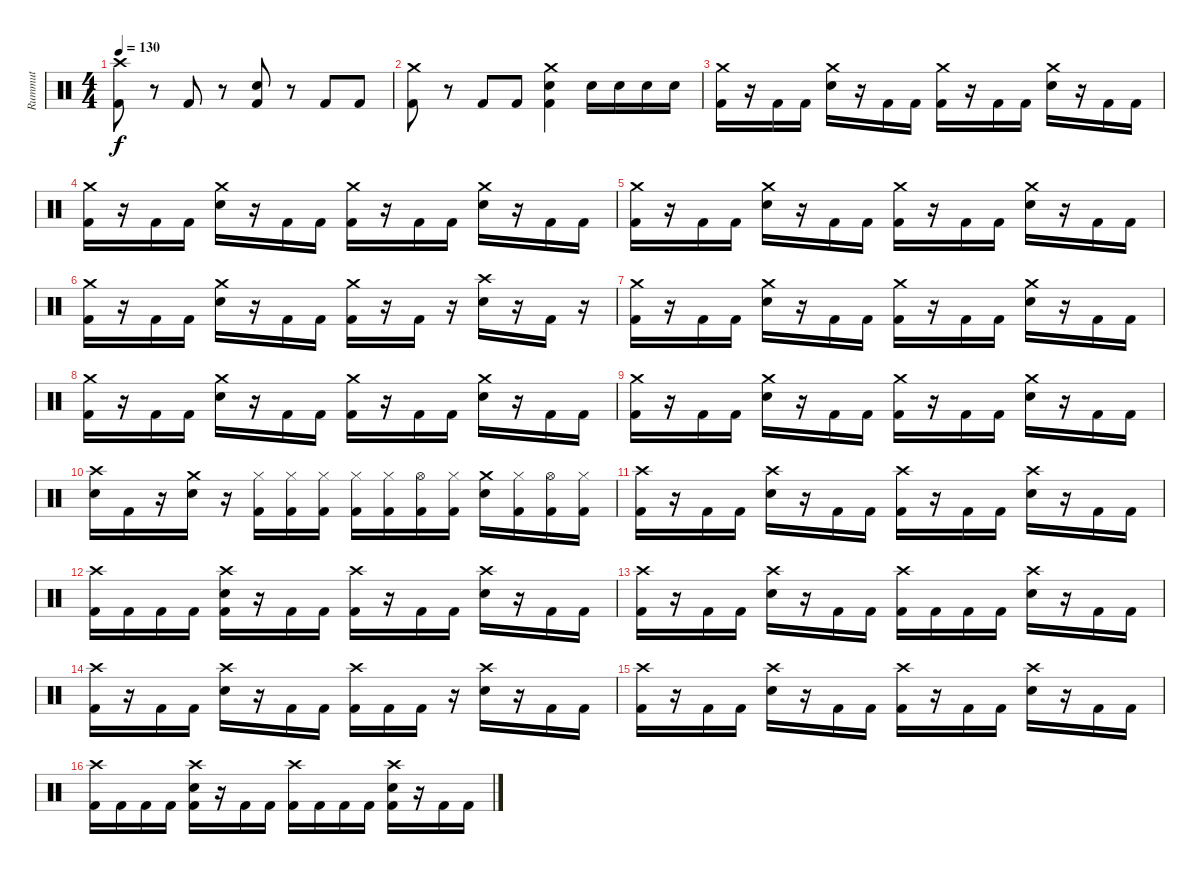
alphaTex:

\track ("Rummut" "Rummut") {instrument percussion}
\staff {score}
\articulation defaults
\ts (4 4)
\tempo 130
\clef neutral
\ks c
("Crash high (hit)" "Kick (hit) 2").8{dy f} r.8 "Kick (hit) 2".8 r.8 ("Snare (hit) 2" "Kick (hit) 2").8 r.8 "Kick (hit) 2".8 "Kick (hit) 2".8 |
("Crash medium (hit)" "Kick (hit) 2").8 r.8 "Kick (hit) 2".8 "Kick (hit) 2".8 ("Crash medium (hit)" "Snare (hit) 2" "Kick (hit) 2").4 "Snare (hit) 2".16 "Snare (hit) 2".16 "Snare (hit) 2".16 "Snare (hit) 2".16 |
("Crash medium (hit)" "Kick (hit) 2").16 r.16 "Kick (hit) 2".16 "Kick (hit) 2".16 ("Crash medium (hit)" "Snare (hit) 2").16 r.16 "Kick (hit) 2".16 "Kick (hit) 2".16 ("Crash medium (hit)" "Kick (hit) 2").16 r.16 "Kick (hit) 2".16 "Kick (hit) 2".16 ("Crash medium (hit)" "Snare (hit) 2").16 r.16 "Kick (hit) 2".16 "Kick (hit) 2".16 |
("Crash medium (hit)" "Kick (hit) 2").16 r.16 "Kick (hit) 2".16 "Kick (hit) 2".16 ("Crash medium (hit)" "Snare (hit) 2").16 r.16 "Kick (hit) 2".16 "Kick (hit) 2".16 ("Crash medium (hit)" "Kick (hit) 2").16 r.16 "Kick (hit) 2".16 "Kick (hit) 2".16 ("Crash medium (hit)" "Snare (hit) 2").16 r.16 "Kick (hit) 2".16 "Kick (hit) 2".16 |
("Crash medium (hit)" "Kick (hit) 2").16 r.16 "Kick (hit) 2".16 "Kick (hit) 2".16 ("Crash medium (hit)" "Snare (hit) 2").16 r.16 "Kick (hit) 2".16 "Kick (hit) 2".16 ("Crash medium (hit)" "Kick (hit) 2").16 r.16 "Kick (hit) 2".16 "Kick (hit) 2".16 ("Crash medium (hit)" "Snare (hit) 2").16 r.16 "Kick (hit) 2".16 "Kick (hit) 2".16 |
("Crash medium (hit)" "Kick (hit) 2").16 r.16 "Kick (hit) 2".16 "Kick (hit) 2".16 ("Crash medium (hit)" "Snare (hit) 2").16 r.16 "Kick (hit) 2".16 "Kick (hit) 2".16 ("Crash medium (hit)" "Kick (hit) 2").16 r.16 "Kick (hit) 2".16 r.16 ("Crash high (hit)" "Snare (hit) 2").16 r.16 "Kick (hit) 2".16 r.16 |
("Crash medium (hit)" "Kick (hit) 2").16 r.16 "Kick (hit) 2".16 "Kick (hit) 2".16 ("Crash medium (hit)" "Snare (hit) 2").16 r.16 "Kick (hit) 2".16 "Kick (hit) 2".16 ("Crash medium (hit)" "Kick (hit) 2").16 r.16 "Kick (hit) 2".16 "Kick (hit) 2".16 ("Crash medium (hit)" "Snare (hit) 2").16 r.16 "Kick (hit) 2".16 "Kick (hit) 2".16 |
("Crash medium (hit)" "Kick (hit) 2").16 r.16 "Kick (hit) 2".16 "Kick (hit) 2".16 ("Crash medium (hit)" "Snare (hit) 2").16 r.16 "Kick (hit) 2".16 "Kick (hit) 2".16 ("Crash medium (hit)" "Kick (hit) 2").16 r.16 "Kick (hit) 2".16 "Kick (hit) 2".16 ("Crash medium (hit)" "Snare (hit) 2").16 r.16 "Kick (hit) 2".16 "Kick (hit) 2".16 |
("Crash medium (hit)" "Kick (hit) 2").16 r.16 "Kick (hit) 2".16 "Kick (hit) 2".16 ("Crash medium (hit)" "Snare (hit) 2").16 r.16 "Kick (hit) 2".16 "Kick (hit) 2".16 ("Crash medium (hit)" "Kick (hit) 2").16 r.16 "Kick (hit) 2".16 "Kick (hit) 2".16 ("Crash medium (hit)" "Snare (hit) 2").16 r.16 "Kick (hit) 2".16 "Kick (hit) 2".16 |
("Crash high (hit)" "Snare (hit) 2").16 "Kick (hit) 2".16 r.16 ("Crash medium (hit)" "Snare (hit) 2").16 r.16 ("Hi-Hat (closed)" "Kick (hit) 2").16 ("Hi-Hat (closed)" "Kick (hit) 2").16 ("Hi-Hat (closed)" "Kick (hit) 2").16 ("Hi-Hat (closed)" "Kick (hit) 2").16 ("Hi-Hat (closed)" "Kick (hit) 2").16 ("Hi-Hat (open)" "Kick (hit) 2").16 ("Hi-Hat (closed)" "Kick (hit) 2").16 ("Crash medium (hit)" "Snare (hit) 2").16 ("Hi-Hat (closed)" "Kick (hit) 2").16 ("Hi-Hat (open)" "Kick (hit) 2").16 ("Hi-Hat (closed)" "Kick (hit) 2").16 |
("Crash high (hit)" "Kick (hit) 2").16 r.16 "Kick (hit) 2".16 "Kick (hit) 2".16 ("Crash high (hit)" "Snare (hit) 2").16 r.16 "Kick (hit) 2".16 "Kick (hit) 2".16 ("Crash high (hit)" "Kick (hit) 2").16 r.16 "Kick (hit) 2".16 "Kick (hit) 2".16 ("Crash high (hit)" "Snare (hit) 2").16 r.16 "Kick (hit) 2".16 "Kick (hit) 2".16 |
("Crash high (hit)" "Kick (hit) 2").16 "Kick (hit) 2".16 "Kick (hit) 2".16 "Kick (hit) 2".16 ("Crash high (hit)" "Snare (hit) 2" "Kick (hit) 2").16 r.16 "Kick (hit) 2".16 "Kick (hit) 2".16 ("Crash high (hit)" "Kick (hit) 2").16 r.16 "Kick (hit) 2".16 "Kick (hit) 2".16 ("Crash high (hit)" "Snare (hit) 2").16 r.16 "Kick (hit) 2".16 "Kick (hit) 2".16 |
("Crash high (hit)" "Kick (hit) 2").16 r.16 "Kick (hit) 2".16 "Kick (hit) 2".16 ("Crash high (hit)" "Snare (hit) 2").16 r.16 "Kick (hit) 2".16 "Kick (hit) 2".16 ("Crash high (hit)" "Kick (hit) 2").16 "Kick (hit) 2".16 "Kick (hit) 2".16 "Kick (hit) 2".16 ("Crash high (hit)" "Snare (hit) 2").16 r.16 "Kick (hit) 2".16 "Kick (hit) 2".16 |
("Crash high (hit)" "Kick (hit) 2").16 r.16 "Kick (hit) 2".16 "Kick (hit) 2".16 ("Crash high (hit)" "Snare (hit) 2").16 r.16 "Kick (hit) 2".16 "Kick (hit) 2".16 ("Crash high (hit)" "Kick (hit) 2").16 "Kick (hit) 2".16 "Kick (hit) 2".16 r.16 ("Crash high (hit)" "Snare (hit) 2").16 r.16 "Kick (hit) 2".16 "Kick (hit) 2".16 |
("Crash high (hit)" "Kick (hit) 2").16 r.16 "Kick (hit) 2".16 "Kick (hit) 2".16 ("Crash high (hit)" "Snare (hit) 2").16 r.16 "Kick (hit) 2".16 "Kick (hit) 2".16 ("Crash high (hit)" "Kick (hit) 2").16 r.16 "Kick (hit) 2".16 "Kick (hit) 2".16 ("Crash high (hit)" "Snare (hit) 2").16 r.16 "Kick (hit) 2".16 "Kick (hit) 2".16 |
("Crash high (hit)" "Kick (hit) 2").16 "Kick (hit) 2".16 "Kick (hit) 2".16 "Kick (hit) 2".16 ("Crash high (hit)" "Snare (hit) 2" "Kick (hit) 2").16 r.16 "Kick (hit) 2".16 "Kick (hit) 2".16 ("Crash high (hit)" "Kick (hit) 2").16 "Kick (hit) 2".16 "Kick (hit) 2".16 "Kick (hit) 2".16 ("Crash high (hit)" "Snare (hit) 2" "Kick (hit) 2").16 r.16 "Kick (hit) 2".16 "Kick (hit) 2".16
